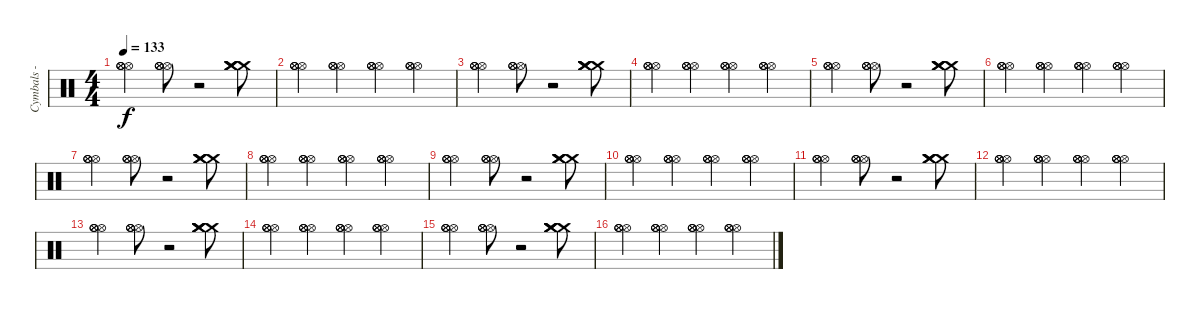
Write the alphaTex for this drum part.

\track ("Cymbals - Joe Daniels" "Cymbals - ") {instrument percussion}
\staff {score}
\articulation defaults
\ts (4 4)
\tempo 133
\clef neutral
\ks c
("Hi-Hat (open)" "Hi-Hat (open)" "Hi-Hat (open)" "Hi-Hat (open)").4{dy f} ("Hi-Hat (open)" "Hi-Hat (open)" "Hi-Hat (open)" "Hi-Hat (open)").8 r.2 ("Crash medium (hit)" "Crash medium (hit)" "Crash medium (hit)" "Crash medium (hit)").8 |
("Hi-Hat (open)" "Hi-Hat (open)" "Hi-Hat (open)" "Hi-Hat (open)").4 ("Hi-Hat (open)" "Hi-Hat (open)" "Hi-Hat (open)" "Hi-Hat (open)").4 ("Hi-Hat (open)" "Hi-Hat (open)" "Hi-Hat (open)" "Hi-Hat (open)").4 ("Hi-Hat (open)" "Hi-Hat (open)" "Hi-Hat (open)" "Hi-Hat (open)").4 |
("Hi-Hat (open)" "Hi-Hat (open)" "Hi-Hat (open)" "Hi-Hat (open)").4 ("Hi-Hat (open)" "Hi-Hat (open)" "Hi-Hat (open)" "Hi-Hat (open)").8 r.2 ("Crash medium (hit)" "Crash medium (hit)" "Crash medium (hit)" "Crash medium (hit)").8 |
("Hi-Hat (open)" "Hi-Hat (open)" "Hi-Hat (open)" "Hi-Hat (open)").4 ("Hi-Hat (open)" "Hi-Hat (open)" "Hi-Hat (open)" "Hi-Hat (open)").4 ("Hi-Hat (open)" "Hi-Hat (open)" "Hi-Hat (open)" "Hi-Hat (open)").4 ("Hi-Hat (open)" "Hi-Hat (open)" "Hi-Hat (open)" "Hi-Hat (open)").4 |
("Hi-Hat (open)" "Hi-Hat (open)" "Hi-Hat (open)" "Hi-Hat (open)").4 ("Hi-Hat (open)" "Hi-Hat (open)" "Hi-Hat (open)" "Hi-Hat (open)").8 r.2 ("Crash medium (hit)" "Crash medium (hit)" "Crash medium (hit)" "Crash medium (hit)").8 |
("Hi-Hat (open)" "Hi-Hat (open)" "Hi-Hat (open)" "Hi-Hat (open)").4 ("Hi-Hat (open)" "Hi-Hat (open)" "Hi-Hat (open)" "Hi-Hat (open)").4 ("Hi-Hat (open)" "Hi-Hat (open)" "Hi-Hat (open)" "Hi-Hat (open)").4 ("Hi-Hat (open)" "Hi-Hat (open)" "Hi-Hat (open)" "Hi-Hat (open)").4 |
("Hi-Hat (open)" "Hi-Hat (open)" "Hi-Hat (open)" "Hi-Hat (open)").4 ("Hi-Hat (open)" "Hi-Hat (open)" "Hi-Hat (open)" "Hi-Hat (open)").8 r.2 ("Crash medium (hit)" "Crash medium (hit)" "Crash medium (hit)" "Crash medium (hit)").8 |
("Hi-Hat (open)" "Hi-Hat (open)" "Hi-Hat (open)" "Hi-Hat (open)").4 ("Hi-Hat (open)" "Hi-Hat (open)" "Hi-Hat (open)" "Hi-Hat (open)").4 ("Hi-Hat (open)" "Hi-Hat (open)" "Hi-Hat (open)" "Hi-Hat (open)").4 ("Hi-Hat (open)" "Hi-Hat (open)" "Hi-Hat (open)" "Hi-Hat (open)").4 |
("Hi-Hat (open)" "Hi-Hat (open)" "Hi-Hat (open)" "Hi-Hat (open)").4 ("Hi-Hat (open)" "Hi-Hat (open)" "Hi-Hat (open)" "Hi-Hat (open)").8 r.2 ("Crash medium (hit)" "Crash medium (hit)" "Crash medium (hit)" "Crash medium (hit)").8 |
("Hi-Hat (open)" "Hi-Hat (open)" "Hi-Hat (open)" "Hi-Hat (open)").4 ("Hi-Hat (open)" "Hi-Hat (open)" "Hi-Hat (open)" "Hi-Hat (open)").4 ("Hi-Hat (open)" "Hi-Hat (open)" "Hi-Hat (open)" "Hi-Hat (open)").4 ("Hi-Hat (open)" "Hi-Hat (open)" "Hi-Hat (open)" "Hi-Hat (open)").4 |
("Hi-Hat (open)" "Hi-Hat (open)" "Hi-Hat (open)" "Hi-Hat (open)").4 ("Hi-Hat (open)" "Hi-Hat (open)" "Hi-Hat (open)" "Hi-Hat (open)").8 r.2 ("Crash medium (hit)" "Crash medium (hit)" "Crash medium (hit)" "Crash medium (hit)").8 |
("Hi-Hat (open)" "Hi-Hat (open)" "Hi-Hat (open)" "Hi-Hat (open)").4 ("Hi-Hat (open)" "Hi-Hat (open)" "Hi-Hat (open)" "Hi-Hat (open)").4 ("Hi-Hat (open)" "Hi-Hat (open)" "Hi-Hat (open)" "Hi-Hat (open)").4 ("Hi-Hat (open)" "Hi-Hat (open)" "Hi-Hat (open)" "Hi-Hat (open)").4 |
("Hi-Hat (open)" "Hi-Hat (open)" "Hi-Hat (open)" "Hi-Hat (open)").4 ("Hi-Hat (open)" "Hi-Hat (open)" "Hi-Hat (open)" "Hi-Hat (open)").8 r.2 ("Crash medium (hit)" "Crash medium (hit)" "Crash medium (hit)" "Crash medium (hit)").8 |
("Hi-Hat (open)" "Hi-Hat (open)" "Hi-Hat (open)" "Hi-Hat (open)").4 ("Hi-Hat (open)" "Hi-Hat (open)" "Hi-Hat (open)" "Hi-Hat (open)").4 ("Hi-Hat (open)" "Hi-Hat (open)" "Hi-Hat (open)" "Hi-Hat (open)").4 ("Hi-Hat (open)" "Hi-Hat (open)" "Hi-Hat (open)" "Hi-Hat (open)").4 |
("Hi-Hat (open)" "Hi-Hat (open)" "Hi-Hat (open)" "Hi-Hat (open)").4 ("Hi-Hat (open)" "Hi-Hat (open)" "Hi-Hat (open)" "Hi-Hat (open)").8 r.2 ("Crash medium (hit)" "Crash medium (hit)" "Crash medium (hit)" "Crash medium (hit)").8 |
("Hi-Hat (open)" "Hi-Hat (open)" "Hi-Hat (open)" "Hi-Hat (open)").4 ("Hi-Hat (open)" "Hi-Hat (open)" "Hi-Hat (open)" "Hi-Hat (open)").4 ("Hi-Hat (open)" "Hi-Hat (open)" "Hi-Hat (open)" "Hi-Hat (open)").4 ("Hi-Hat (open)" "Hi-Hat (open)" "Hi-Hat (open)" "Hi-Hat (open)").4
